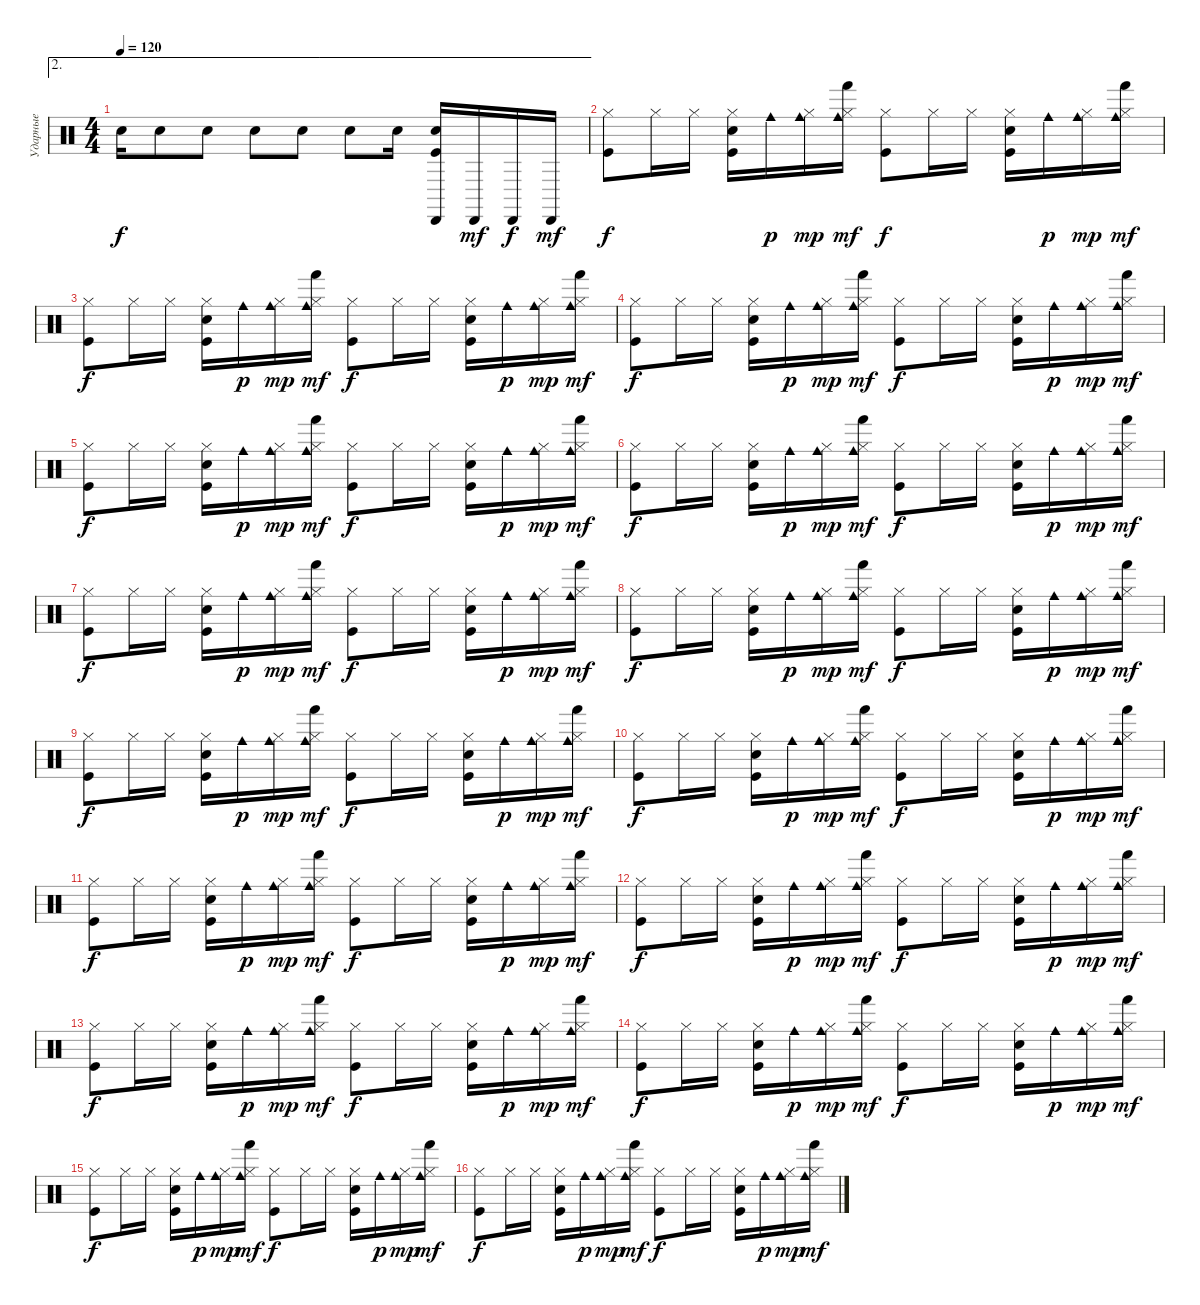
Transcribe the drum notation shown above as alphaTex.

\track ("Ударные" "Ударные") {instrument percussion}
\staff {score}
\articulation defaults
\ae 2
\ts (4 4)
\tempo 120
\clef neutral
\ks c "Snare (hit) 2".16{dy f} "Snare (hit) 2".8 "Snare (hit) 2".8 "Snare (hit) 2".8 "Snare (hit) 2".8 "Snare (hit) 2".8 "Snare (hit) 2".16
("Cabasa (hit)" "Snare (hit) 2" "Kick (hit)").16 "Cabasa (hit)".16{dy mf} "Cabasa (hit)".16{dy f} "Cabasa (hit)".16{dy mf} |
("Hi-Hat (closed)" "Kick (hit)").8{dy f} "Hi-Hat (closed)".16 "Hi-Hat (closed)".16 ("Hi-Hat (closed)" "Snare (hit) 2" "Kick (hit)").16 "Cowbell medium (hit)".16{dy p} ("Hi-Hat (closed)" "Cowbell medium (hit)").16{dy mp} ("Hi-Hat (closed)" "Hand (hit)" "Cowbell medium (hit)").16{dy mf} ("Hi-Hat (closed)" "Kick (hit)").8{dy f} "Hi-Hat (closed)".16 "Hi-Hat (closed)".16 ("Hi-Hat (closed)" "Snare (hit) 2" "Kick (hit)").16 "Cowbell medium (hit)".16{dy p} ("Hi-Hat (closed)" "Cowbell medium (hit)").16{dy mp} ("Hi-Hat (closed)" "Hand (hit)" "Cowbell medium (hit)").16{dy mf} |
("Hi-Hat (closed)" "Kick (hit)").8{dy f} "Hi-Hat (closed)".16 "Hi-Hat (closed)".16 ("Hi-Hat (closed)" "Snare (hit) 2" "Kick (hit)").16 "Cowbell medium (hit)".16{dy p} ("Hi-Hat (closed)" "Cowbell medium (hit)").16{dy mp} ("Hi-Hat (closed)" "Hand (hit)" "Cowbell medium (hit)").16{dy mf} ("Hi-Hat (closed)" "Kick (hit)").8{dy f} "Hi-Hat (closed)".16 "Hi-Hat (closed)".16 ("Hi-Hat (closed)" "Snare (hit) 2" "Kick (hit)").16 "Cowbell medium (hit)".16{dy p} ("Hi-Hat (closed)" "Cowbell medium (hit)").16{dy mp} ("Hi-Hat (closed)" "Hand (hit)" "Cowbell medium (hit)").16{dy mf} |
("Hi-Hat (closed)" "Kick (hit)").8{dy f} "Hi-Hat (closed)".16 "Hi-Hat (closed)".16 ("Hi-Hat (closed)" "Snare (hit) 2" "Kick (hit)").16 "Cowbell medium (hit)".16{dy p} ("Hi-Hat (closed)" "Cowbell medium (hit)").16{dy mp} ("Hi-Hat (closed)" "Hand (hit)" "Cowbell medium (hit)").16{dy mf} ("Hi-Hat (closed)" "Kick (hit)").8{dy f} "Hi-Hat (closed)".16 "Hi-Hat (closed)".16 ("Hi-Hat (closed)" "Snare (hit) 2" "Kick (hit)").16 "Cowbell medium (hit)".16{dy p} ("Hi-Hat (closed)" "Cowbell medium (hit)").16{dy mp} ("Hi-Hat (closed)" "Hand (hit)" "Cowbell medium (hit)").16{dy mf} |
("Hi-Hat (closed)" "Kick (hit)").8{dy f} "Hi-Hat (closed)".16 "Hi-Hat (closed)".16 ("Hi-Hat (closed)" "Snare (hit) 2" "Kick (hit)").16 "Cowbell medium (hit)".16{dy p} ("Hi-Hat (closed)" "Cowbell medium (hit)").16{dy mp} ("Hi-Hat (closed)" "Hand (hit)" "Cowbell medium (hit)").16{dy mf} ("Hi-Hat (closed)" "Kick (hit)").8{dy f} "Hi-Hat (closed)".16 "Hi-Hat (closed)".16 ("Hi-Hat (closed)" "Snare (hit) 2" "Kick (hit)").16 "Cowbell medium (hit)".16{dy p} ("Hi-Hat (closed)" "Cowbell medium (hit)").16{dy mp} ("Hi-Hat (closed)" "Hand (hit)" "Cowbell medium (hit)").16{dy mf} |
("Hi-Hat (closed)" "Kick (hit)").8{dy f} "Hi-Hat (closed)".16 "Hi-Hat (closed)".16 ("Hi-Hat (closed)" "Snare (hit) 2" "Kick (hit)").16 "Cowbell medium (hit)".16{dy p} ("Hi-Hat (closed)" "Cowbell medium (hit)").16{dy mp} ("Hi-Hat (closed)" "Hand (hit)" "Cowbell medium (hit)").16{dy mf} ("Hi-Hat (closed)" "Kick (hit)").8{dy f} "Hi-Hat (closed)".16 "Hi-Hat (closed)".16 ("Hi-Hat (closed)" "Snare (hit) 2" "Kick (hit)").16 "Cowbell medium (hit)".16{dy p} ("Hi-Hat (closed)" "Cowbell medium (hit)").16{dy mp} ("Hi-Hat (closed)" "Hand (hit)" "Cowbell medium (hit)").16{dy mf} |
("Hi-Hat (closed)" "Kick (hit)").8{dy f} "Hi-Hat (closed)".16 "Hi-Hat (closed)".16 ("Hi-Hat (closed)" "Snare (hit) 2" "Kick (hit)").16 "Cowbell medium (hit)".16{dy p} ("Hi-Hat (closed)" "Cowbell medium (hit)").16{dy mp} ("Hi-Hat (closed)" "Hand (hit)" "Cowbell medium (hit)").16{dy mf} ("Hi-Hat (closed)" "Kick (hit)").8{dy f} "Hi-Hat (closed)".16 "Hi-Hat (closed)".16 ("Hi-Hat (closed)" "Snare (hit) 2" "Kick (hit)").16 "Cowbell medium (hit)".16{dy p} ("Hi-Hat (closed)" "Cowbell medium (hit)").16{dy mp} ("Hi-Hat (closed)" "Hand (hit)" "Cowbell medium (hit)").16{dy mf} |
("Hi-Hat (closed)" "Kick (hit)").8{dy f} "Hi-Hat (closed)".16 "Hi-Hat (closed)".16 ("Hi-Hat (closed)" "Snare (hit) 2" "Kick (hit)").16 "Cowbell medium (hit)".16{dy p} ("Hi-Hat (closed)" "Cowbell medium (hit)").16{dy mp} ("Hi-Hat (closed)" "Hand (hit)" "Cowbell medium (hit)").16{dy mf} ("Hi-Hat (closed)" "Kick (hit)").8{dy f} "Hi-Hat (closed)".16 "Hi-Hat (closed)".16 ("Hi-Hat (closed)" "Snare (hit) 2" "Kick (hit)").16 "Cowbell medium (hit)".16{dy p} ("Hi-Hat (closed)" "Cowbell medium (hit)").16{dy mp} ("Hi-Hat (closed)" "Hand (hit)" "Cowbell medium (hit)").16{dy mf} |
("Hi-Hat (closed)" "Kick (hit)").8{dy f} "Hi-Hat (closed)".16 "Hi-Hat (closed)".16 ("Hi-Hat (closed)" "Snare (hit) 2" "Kick (hit)").16 "Cowbell medium (hit)".16{dy p} ("Hi-Hat (closed)" "Cowbell medium (hit)").16{dy mp} ("Hi-Hat (closed)" "Hand (hit)" "Cowbell medium (hit)").16{dy mf} ("Hi-Hat (closed)" "Kick (hit)").8{dy f} "Hi-Hat (closed)".16 "Hi-Hat (closed)".16 ("Hi-Hat (closed)" "Snare (hit) 2" "Kick (hit)").16 "Cowbell medium (hit)".16{dy p} ("Hi-Hat (closed)" "Cowbell medium (hit)").16{dy mp} ("Hi-Hat (closed)" "Hand (hit)" "Cowbell medium (hit)").16{dy mf} |
("Hi-Hat (closed)" "Kick (hit)").8{dy f} "Hi-Hat (closed)".16 "Hi-Hat (closed)".16 ("Hi-Hat (closed)" "Snare (hit) 2" "Kick (hit)").16 "Cowbell medium (hit)".16{dy p} ("Hi-Hat (closed)" "Cowbell medium (hit)").16{dy mp} ("Hi-Hat (closed)" "Hand (hit)" "Cowbell medium (hit)").16{dy mf} ("Hi-Hat (closed)" "Kick (hit)").8{dy f} "Hi-Hat (closed)".16 "Hi-Hat (closed)".16 ("Hi-Hat (closed)" "Snare (hit) 2" "Kick (hit)").16 "Cowbell medium (hit)".16{dy p} ("Hi-Hat (closed)" "Cowbell medium (hit)").16{dy mp} ("Hi-Hat (closed)" "Hand (hit)" "Cowbell medium (hit)").16{dy mf} |
("Hi-Hat (closed)" "Kick (hit)").8{dy f} "Hi-Hat (closed)".16 "Hi-Hat (closed)".16 ("Hi-Hat (closed)" "Snare (hit) 2" "Kick (hit)").16 "Cowbell medium (hit)".16{dy p} ("Hi-Hat (closed)" "Cowbell medium (hit)").16{dy mp} ("Hi-Hat (closed)" "Hand (hit)" "Cowbell medium (hit)").16{dy mf} ("Hi-Hat (closed)" "Kick (hit)").8{dy f} "Hi-Hat (closed)".16 "Hi-Hat (closed)".16 ("Hi-Hat (closed)" "Snare (hit) 2" "Kick (hit)").16 "Cowbell medium (hit)".16{dy p} ("Hi-Hat (closed)" "Cowbell medium (hit)").16{dy mp} ("Hi-Hat (closed)" "Hand (hit)" "Cowbell medium (hit)").16{dy mf} |
("Hi-Hat (closed)" "Kick (hit)").8{dy f} "Hi-Hat (closed)".16 "Hi-Hat (closed)".16 ("Hi-Hat (closed)" "Snare (hit) 2" "Kick (hit)").16 "Cowbell medium (hit)".16{dy p} ("Hi-Hat (closed)" "Cowbell medium (hit)").16{dy mp} ("Hi-Hat (closed)" "Hand (hit)" "Cowbell medium (hit)").16{dy mf} ("Hi-Hat (closed)" "Kick (hit)").8{dy f} "Hi-Hat (closed)".16 "Hi-Hat (closed)".16 ("Hi-Hat (closed)" "Snare (hit) 2" "Kick (hit)").16 "Cowbell medium (hit)".16{dy p} ("Hi-Hat (closed)" "Cowbell medium (hit)").16{dy mp} ("Hi-Hat (closed)" "Hand (hit)" "Cowbell medium (hit)").16{dy mf} |
("Hi-Hat (closed)" "Kick (hit)").8{dy f} "Hi-Hat (closed)".16 "Hi-Hat (closed)".16 ("Hi-Hat (closed)" "Snare (hit) 2" "Kick (hit)").16 "Cowbell medium (hit)".16{dy p} ("Hi-Hat (closed)" "Cowbell medium (hit)").16{dy mp} ("Hi-Hat (closed)" "Hand (hit)" "Cowbell medium (hit)").16{dy mf} ("Hi-Hat (closed)" "Kick (hit)").8{dy f} "Hi-Hat (closed)".16 "Hi-Hat (closed)".16 ("Hi-Hat (closed)" "Snare (hit) 2" "Kick (hit)").16 "Cowbell medium (hit)".16{dy p} ("Hi-Hat (closed)" "Cowbell medium (hit)").16{dy mp} ("Hi-Hat (closed)" "Hand (hit)" "Cowbell medium (hit)").16{dy mf} |
("Hi-Hat (closed)" "Kick (hit)").8{dy f} "Hi-Hat (closed)".16 "Hi-Hat (closed)".16 ("Hi-Hat (closed)" "Snare (hit) 2" "Kick (hit)").16 "Cowbell medium (hit)".16{dy p} ("Hi-Hat (closed)" "Cowbell medium (hit)").16{dy mp} ("Hi-Hat (closed)" "Hand (hit)" "Cowbell medium (hit)").16{dy mf} ("Hi-Hat (closed)" "Kick (hit)").8{dy f} "Hi-Hat (closed)".16 "Hi-Hat (closed)".16 ("Hi-Hat (closed)" "Snare (hit) 2" "Kick (hit)").16 "Cowbell medium (hit)".16{dy p} ("Hi-Hat (closed)" "Cowbell medium (hit)").16{dy mp} ("Hi-Hat (closed)" "Hand (hit)" "Cowbell medium (hit)").16{dy mf} |
("Hi-Hat (closed)" "Kick (hit)").8{dy f} "Hi-Hat (closed)".16 "Hi-Hat (closed)".16 ("Hi-Hat (closed)" "Snare (hit) 2" "Kick (hit)").16 "Cowbell medium (hit)".16{dy p} ("Hi-Hat (closed)" "Cowbell medium (hit)").16{dy mp} ("Hi-Hat (closed)" "Hand (hit)" "Cowbell medium (hit)").16{dy mf} ("Hi-Hat (closed)" "Kick (hit)").8{dy f} "Hi-Hat (closed)".16 "Hi-Hat (closed)".16 ("Hi-Hat (closed)" "Snare (hit) 2" "Kick (hit)").16 "Cowbell medium (hit)".16{dy p} ("Hi-Hat (closed)" "Cowbell medium (hit)").16{dy mp} ("Hi-Hat (closed)" "Hand (hit)" "Cowbell medium (hit)").16{dy mf} |
("Hi-Hat (closed)" "Kick (hit)").8{dy f} "Hi-Hat (closed)".16 "Hi-Hat (closed)".16 ("Hi-Hat (closed)" "Snare (hit) 2" "Kick (hit)").16 "Cowbell medium (hit)".16{dy p} ("Hi-Hat (closed)" "Cowbell medium (hit)").16{dy mp} ("Hi-Hat (closed)" "Hand (hit)" "Cowbell medium (hit)").16{dy mf} ("Hi-Hat (closed)" "Kick (hit)").8{dy f} "Hi-Hat (closed)".16 "Hi-Hat (closed)".16 ("Hi-Hat (closed)" "Snare (hit) 2" "Kick (hit)").16 "Cowbell medium (hit)".16{dy p} ("Hi-Hat (closed)" "Cowbell medium (hit)").16{dy mp} ("Hi-Hat (closed)" "Hand (hit)" "Cowbell medium (hit)").16{dy mf}
